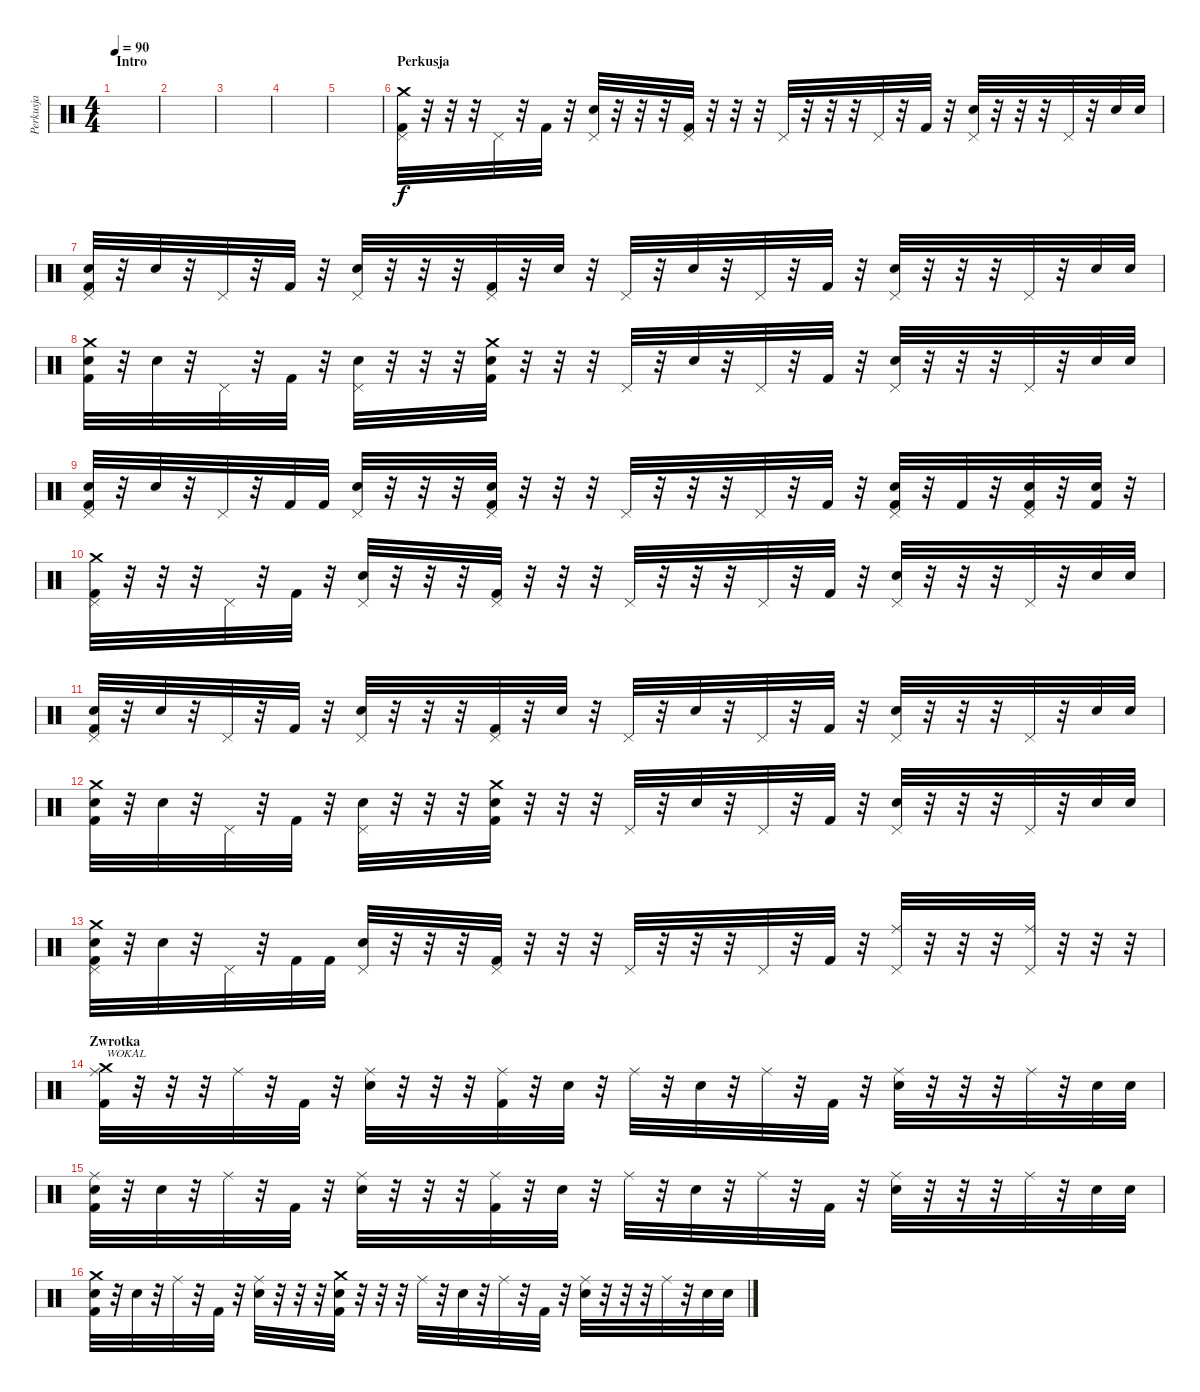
\track ("Perkusja" "Perkusja") {instrument percussion}
\staff {score}
\articulation defaults
\ts (4 4)
\section ("" "Intro")
\tempo 90
\clef neutral
\ks c
|
|
|
|
|
\section ("" "Perkusja")
("Crash medium (hit)" "Pedal Hi-Hat (hit)" "Kick (hit) 2").32 r.32 r.32 r.32 "Pedal Hi-Hat (hit)".32 r.32 "Kick (hit) 2".32 r.32 ("Pedal Hi-Hat (hit)" "Electric Snare (hit)").32 r.32 r.32 r.32 ("Pedal Hi-Hat (hit)" "Kick (hit) 2").32 r.32 r.32 r.32 "Pedal Hi-Hat (hit)".32 r.32 r.32 r.32 "Pedal Hi-Hat (hit)".32 r.32 "Kick (hit) 2".32 r.32 ("Pedal Hi-Hat (hit)" "Electric Snare (hit)").32 r.32 r.32 r.32 "Pedal Hi-Hat (hit)".32 r.32 "Snare (hit) 2".32 "Snare (hit) 2".32 |
("Pedal Hi-Hat (hit)" "Snare (hit) 2" "Kick (hit) 2").32 r.32 "Snare (hit) 2".32 r.32 "Pedal Hi-Hat (hit)".32 r.32 "Kick (hit) 2".32 r.32 ("Pedal Hi-Hat (hit)" "Electric Snare (hit)").32 r.32 r.32 r.32 ("Pedal Hi-Hat (hit)" "Kick (hit) 2").32 r.32 "Snare (hit) 2".32 r.32 "Pedal Hi-Hat (hit)".32 r.32 "Snare (hit) 2".32 r.32 "Pedal Hi-Hat (hit)".32 r.32 "Kick (hit) 2".32 r.32 ("Pedal Hi-Hat (hit)" "Electric Snare (hit)").32 r.32 r.32 r.32 "Pedal Hi-Hat (hit)".32 r.32 "Snare (hit) 2".32 "Snare (hit) 2".32 |
("Crash medium (hit)" "Snare (hit) 2" "Kick (hit) 2").32 r.32 "Snare (hit) 2".32 r.32 "Pedal Hi-Hat (hit)".32 r.32 "Kick (hit) 2".32 r.32 ("Pedal Hi-Hat (hit)" "Electric Snare (hit)").32 r.32 r.32 r.32 ("Crash medium (hit)" "Electric Snare (hit)" "Kick (hit) 2").32 r.32 r.32 r.32 "Pedal Hi-Hat (hit)".32 r.32 "Snare (hit) 2".32 r.32 "Pedal Hi-Hat (hit)".32 r.32 "Kick (hit) 2".32 r.32 ("Pedal Hi-Hat (hit)" "Electric Snare (hit)").32 r.32 r.32 r.32 "Pedal Hi-Hat (hit)".32 r.32 "Snare (hit) 2".32 "Snare (hit) 2".32 |
("Pedal Hi-Hat (hit)" "Snare (hit) 2" "Kick (hit) 2").32 r.32 "Snare (hit) 2".32 r.32 "Pedal Hi-Hat (hit)".32 r.32 "Kick (hit) 2".32 "Kick (hit) 2".32 ("Pedal Hi-Hat (hit)" "Electric Snare (hit)").32 r.32 r.32 r.32 ("Pedal Hi-Hat (hit)" "Electric Snare (hit)" "Kick (hit) 2").32 r.32 r.32 r.32 "Pedal Hi-Hat (hit)".32 r.32 r.32 r.32 "Pedal Hi-Hat (hit)".32 r.32 "Kick (hit) 2".32 r.32 ("Pedal Hi-Hat (hit)" "Electric Snare (hit)" "Kick (hit) 2").32 r.32 "Kick (hit) 2".32 r.32 ("Pedal Hi-Hat (hit)" "Electric Snare (hit)" "Kick (hit) 2").32 r.32 ("Electric Snare (hit)" "Kick (hit) 2").32 r.32 |
("Crash medium (hit)" "Pedal Hi-Hat (hit)" "Kick (hit) 2").32 r.32 r.32 r.32 "Pedal Hi-Hat (hit)".32 r.32 "Kick (hit) 2".32 r.32 ("Pedal Hi-Hat (hit)" "Electric Snare (hit)").32 r.32 r.32 r.32 ("Pedal Hi-Hat (hit)" "Kick (hit) 2").32 r.32 r.32 r.32 "Pedal Hi-Hat (hit)".32 r.32 r.32 r.32 "Pedal Hi-Hat (hit)".32 r.32 "Kick (hit) 2".32 r.32 ("Pedal Hi-Hat (hit)" "Electric Snare (hit)").32 r.32 r.32 r.32 "Pedal Hi-Hat (hit)".32 r.32 "Snare (hit) 2".32 "Snare (hit) 2".32 |
("Pedal Hi-Hat (hit)" "Snare (hit) 2" "Kick (hit) 2").32 r.32 "Snare (hit) 2".32 r.32 "Pedal Hi-Hat (hit)".32 r.32 "Kick (hit) 2".32 r.32 ("Pedal Hi-Hat (hit)" "Electric Snare (hit)").32 r.32 r.32 r.32 ("Pedal Hi-Hat (hit)" "Kick (hit) 2").32 r.32 "Snare (hit) 2".32 r.32 "Pedal Hi-Hat (hit)".32 r.32 "Snare (hit) 2".32 r.32 "Pedal Hi-Hat (hit)".32 r.32 "Kick (hit) 2".32 r.32 ("Pedal Hi-Hat (hit)" "Electric Snare (hit)").32 r.32 r.32 r.32 "Pedal Hi-Hat (hit)".32 r.32 "Snare (hit) 2".32 "Snare (hit) 2".32 |
("Crash medium (hit)" "Snare (hit) 2" "Kick (hit) 2").32 r.32 "Snare (hit) 2".32 r.32 "Pedal Hi-Hat (hit)".32 r.32 "Kick (hit) 2".32 r.32 ("Pedal Hi-Hat (hit)" "Electric Snare (hit)").32 r.32 r.32 r.32 ("Crash medium (hit)" "Electric Snare (hit)" "Kick (hit) 2").32 r.32 r.32 r.32 "Pedal Hi-Hat (hit)".32 r.32 "Snare (hit) 2".32 r.32 "Pedal Hi-Hat (hit)".32 r.32 "Kick (hit) 2".32 r.32 ("Pedal Hi-Hat (hit)" "Electric Snare (hit)").32 r.32 r.32 r.32 "Pedal Hi-Hat (hit)".32 r.32 "Snare (hit) 2".32 "Snare (hit) 2".32 |
("Crash medium (hit)" "Pedal Hi-Hat (hit)" "Snare (hit) 2" "Kick (hit) 2").32 r.32 "Snare (hit) 2".32 r.32 "Pedal Hi-Hat (hit)".32 r.32 "Kick (hit) 2".32 "Kick (hit) 2".32 ("Pedal Hi-Hat (hit)" "Electric Snare (hit)").32 r.32 r.32 r.32 ("Pedal Hi-Hat (hit)" "Kick (hit) 2").32 r.32 r.32 r.32 "Pedal Hi-Hat (hit)".32 r.32 r.32 r.32 "Pedal Hi-Hat (hit)".32 r.32 "Kick (hit) 2".32 r.32 ("Ride (middle)" "Pedal Hi-Hat (hit)").32 r.32 r.32 r.32 ("Ride (middle)" "Pedal Hi-Hat (hit)").32 r.32 r.32 r.32 |
\section ("" "Zwrotka")
("Crash medium (hit)" "Ride (middle)" "Kick (hit) 2").32{txt "WOKAL"} r.32 r.32 r.32 "Ride (middle)".32 r.32 "Kick (hit) 2".32 r.32 ("Ride (middle)" "Electric Snare (hit)").32 r.32 r.32 r.32 ("Ride (middle)" "Kick (hit) 2").32 r.32 "Snare (hit) 2".32 r.32 "Ride (middle)".32 r.32 "Snare (hit) 2".32 r.32 "Ride (middle)".32 r.32 "Kick (hit) 2".32 r.32 ("Ride (middle)" "Electric Snare (hit)").32 r.32 r.32 r.32 "Ride (middle)".32 r.32 "Snare (hit) 2".32 "Snare (hit) 2".32 |
("Ride (middle)" "Snare (hit) 2" "Kick (hit) 2").32 r.32 "Snare (hit) 2".32 r.32 "Ride (middle)".32 r.32 "Kick (hit) 2".32 r.32 ("Ride (middle)" "Electric Snare (hit)").32 r.32 r.32 r.32 ("Ride (middle)" "Kick (hit) 2").32 r.32 "Snare (hit) 2".32 r.32 "Ride (middle)".32 r.32 "Snare (hit) 2".32 r.32 "Ride (middle)".32 r.32 "Kick (hit) 2".32 r.32 ("Ride (middle)" "Electric Snare (hit)").32 r.32 r.32 r.32 "Ride (middle)".32 r.32 "Snare (hit) 2".32 "Snare (hit) 2".32 |
("Crash medium (hit)" "Snare (hit) 2" "Kick (hit) 2").32 r.32 "Snare (hit) 2".32 r.32 "Ride (middle)".32 r.32 "Kick (hit) 2".32 r.32 ("Ride (middle)" "Electric Snare (hit)").32 r.32 r.32 r.32 ("Crash medium (hit)" "Electric Snare (hit)" "Kick (hit) 2").32 r.32 r.32 r.32 "Ride (middle)".32 r.32 "Snare (hit) 2".32 r.32 "Ride (middle)".32 r.32 "Kick (hit) 2".32 r.32 ("Ride (middle)" "Electric Snare (hit)").32 r.32 r.32 r.32 "Ride (middle)".32 r.32 "Snare (hit) 2".32 "Snare (hit) 2".32
